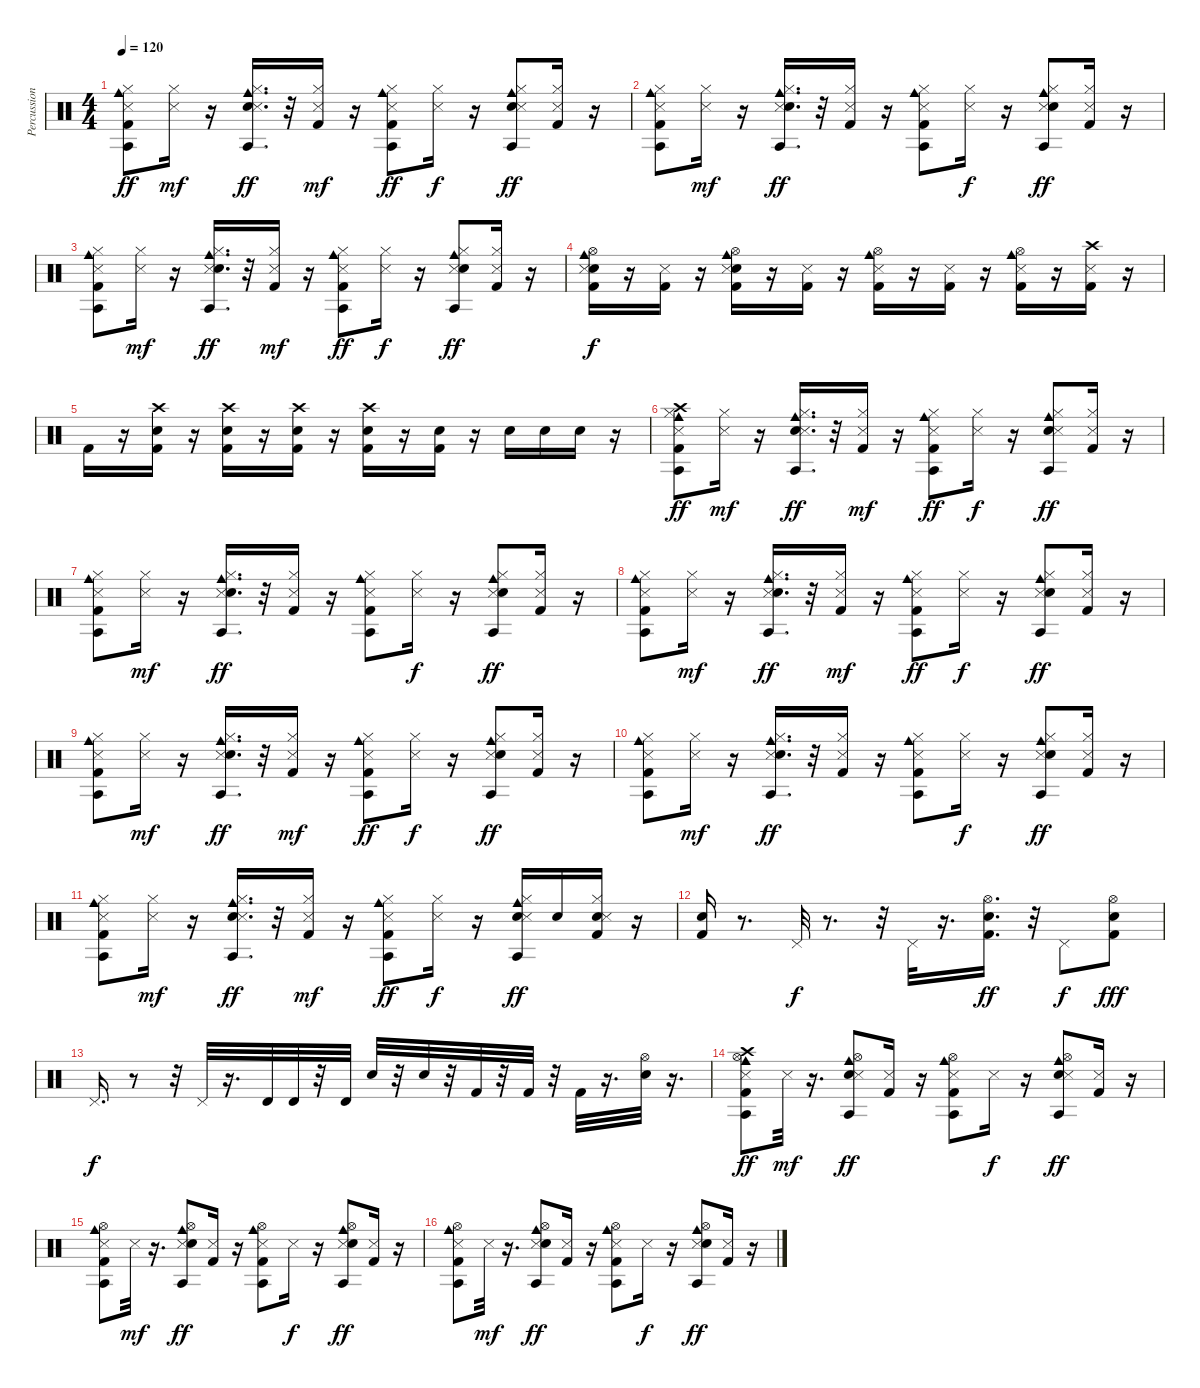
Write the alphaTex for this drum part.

\track ("Percussion" "Percussion") {instrument percussion}
\staff {score}
\articulation defaults
\ts (4 4)
\tempo 120
\clef neutral
\ks c
("Kick (hit) 2" "Agogo tow (hit)" "Cowbell medium (hit)" "Snare (side stick) 3" "Hi-Hat (closed)").8{dy ff} ("Snare (side stick) 3" "Hi-Hat (closed)").16{dy mf} r.16 ("Snare (hit) 2" "Agogo tow (hit)" "Cowbell medium (hit)" "Snare (side stick) 3" "Hi-Hat (closed)").16{d dy ff} r.32 ("Kick (hit) 2" "Snare (side stick) 3" "Hi-Hat (closed)").16{dy mf} r.16 ("Kick (hit) 2" "Agogo tow (hit)" "Cowbell medium (hit)" "Snare (side stick) 3" "Hi-Hat (closed)").8{dy ff} ("Snare (side stick) 3" "Hi-Hat (closed)").16{dy f} r.16 ("Snare (hit) 2" "Agogo tow (hit)" "Cowbell medium (hit)" "Snare (side stick) 3" "Hi-Hat (closed)").8{dy ff} ("Kick (hit) 2" "Snare (side stick) 3" "Hi-Hat (closed)").16 r.16 |
("Agogo tow (hit)" "Snare (side stick) 3" "Cowbell medium (hit)" "Hi-Hat (closed)" "Kick (hit) 2").8 ("Snare (side stick) 3" "Hi-Hat (closed)").16{dy mf} r.16 ("Agogo tow (hit)" "Snare (side stick) 3" "Cowbell medium (hit)" "Hi-Hat (closed)" "Snare (hit) 2").16{d dy ff} r.32 ("Snare (side stick) 3" "Hi-Hat (closed)" "Kick (hit) 2").16 r.16 ("Agogo tow (hit)" "Snare (side stick) 3" "Cowbell medium (hit)" "Hi-Hat (closed)" "Kick (hit) 2").8 ("Snare (side stick) 3" "Hi-Hat (closed)").16{dy f} r.16 ("Agogo tow (hit)" "Snare (side stick) 3" "Cowbell medium (hit)" "Hi-Hat (closed)" "Snare (hit) 2").8{dy ff} ("Snare (side stick) 3" "Hi-Hat (closed)" "Kick (hit) 2").16 r.16 |
("Cowbell medium (hit)" "Snare (side stick) 3" "Agogo tow (hit)" "Kick (hit) 2" "Hi-Hat (closed)").8 ("Snare (side stick) 3" "Hi-Hat (closed)").16{dy mf} r.16 ("Cowbell medium (hit)" "Snare (side stick) 3" "Agogo tow (hit)" "Snare (hit) 2" "Hi-Hat (closed)").16{d dy ff} r.32 ("Snare (side stick) 3" "Kick (hit) 2" "Hi-Hat (closed)").16{dy mf} r.16 ("Cowbell medium (hit)" "Snare (side stick) 3" "Agogo tow (hit)" "Kick (hit) 2" "Hi-Hat (closed)").8{dy ff} ("Snare (side stick) 3" "Hi-Hat (closed)").16{dy f} r.16 ("Cowbell medium (hit)" "Snare (side stick) 3" "Agogo tow (hit)" "Snare (hit) 2" "Hi-Hat (closed)").8{dy ff} ("Snare (side stick) 3" "Kick (hit) 2" "Hi-Hat (closed)").16 r.16 |
("Electric Snare (hit)" "Snare (side stick) 3" "Cowbell medium (hit)" "Hi-Hat (open)" "Kick (hit) 2").16{dy f} r.16 ("Snare (side stick) 3" "Kick (hit) 2").16 r.16 ("Electric Snare (hit)" "Snare (side stick) 3" "Cowbell medium (hit)" "Hi-Hat (open)" "Kick (hit) 2").16 r.16 ("Snare (side stick) 3" "Kick (hit) 2").16 r.16 ("Snare (side stick) 3" "Cowbell medium (hit)" "Hi-Hat (open)" "Kick (hit) 2").16 r.16 ("Snare (side stick) 3" "Kick (hit) 2").16 r.16 ("Snare (side stick) 3" "Cowbell medium (hit)" "Hi-Hat (open)" "Kick (hit) 2").16 r.16 ("Crash high (hit)" "Snare (side stick) 3" "Kick (hit) 2").16 r.16 |
"Kick (hit) 2".16 r.16 ("Crash high (hit)" "Snare (hit) 2" "Kick (hit) 2").16 r.16 ("Snare (hit) 2" "Crash high (hit)" "Kick (hit) 2").16 r.16 ("Snare (hit) 2" "Kick (hit) 2" "Crash high (hit)").16 r.16 ("Snare (hit) 2" "Crash high (hit)" "Kick (hit) 2").16 r.16 ("Snare (hit) 2" "Kick (hit) 2").16 r.16 "Snare (hit) 2".16 "Snare (hit) 2".16 "Snare (hit) 2".16 r.16 |
("Kick (hit) 2" "Hi-Hat (closed)" "Agogo tow (hit)" "Crash high (hit)" "Cowbell medium (hit)" "Snare (side stick) 3").8{dy ff} ("Hi-Hat (closed)" "Snare (side stick) 3").16{dy mf} r.16 ("Snare (hit) 2" "Hi-Hat (closed)" "Agogo tow (hit)" "Cowbell medium (hit)" "Snare (side stick) 3").16{d dy ff} r.32 ("Kick (hit) 2" "Hi-Hat (closed)" "Snare (side stick) 3").16{dy mf} r.16 ("Kick (hit) 2" "Hi-Hat (closed)" "Agogo tow (hit)" "Cowbell medium (hit)" "Snare (side stick) 3").8{dy ff} ("Hi-Hat (closed)" "Snare (side stick) 3").16{dy f} r.16 ("Snare (hit) 2" "Hi-Hat (closed)" "Agogo tow (hit)" "Cowbell medium (hit)" "Snare (side stick) 3").8{dy ff} ("Kick (hit) 2" "Hi-Hat (closed)" "Snare (side stick) 3").16 r.16 |
("Cowbell medium (hit)" "Snare (side stick) 3" "Hi-Hat (closed)" "Agogo tow (hit)" "Kick (hit) 2").8 ("Snare (side stick) 3" "Hi-Hat (closed)").16{dy mf} r.16 ("Cowbell medium (hit)" "Snare (side stick) 3" "Hi-Hat (closed)" "Agogo tow (hit)" "Snare (hit) 2").16{d dy ff} r.32 ("Snare (side stick) 3" "Hi-Hat (closed)" "Kick (hit) 2").16 r.16 ("Cowbell medium (hit)" "Snare (side stick) 3" "Hi-Hat (closed)" "Agogo tow (hit)" "Kick (hit) 2").8 ("Snare (side stick) 3" "Hi-Hat (closed)").16{dy f} r.16 ("Cowbell medium (hit)" "Snare (side stick) 3" "Hi-Hat (closed)" "Agogo tow (hit)" "Snare (hit) 2").8{dy ff} ("Snare (side stick) 3" "Hi-Hat (closed)" "Kick (hit) 2").16 r.16 |
("Snare (side stick) 3" "Agogo tow (hit)" "Kick (hit) 2" "Cowbell medium (hit)" "Hi-Hat (closed)").8 ("Snare (side stick) 3" "Hi-Hat (closed)").16{dy mf} r.16 ("Snare (side stick) 3" "Agogo tow (hit)" "Snare (hit) 2" "Cowbell medium (hit)" "Hi-Hat (closed)").16{d dy ff} r.32 ("Snare (side stick) 3" "Kick (hit) 2" "Hi-Hat (closed)").16{dy mf} r.16 ("Snare (side stick) 3" "Agogo tow (hit)" "Kick (hit) 2" "Cowbell medium (hit)" "Hi-Hat (closed)").8{dy ff} ("Snare (side stick) 3" "Hi-Hat (closed)").16{dy f} r.16 ("Snare (side stick) 3" "Agogo tow (hit)" "Snare (hit) 2" "Cowbell medium (hit)" "Hi-Hat (closed)").8{dy ff} ("Snare (side stick) 3" "Kick (hit) 2" "Hi-Hat (closed)").16 r.16 |
("Cowbell medium (hit)" "Agogo tow (hit)" "Snare (side stick) 3" "Kick (hit) 2" "Hi-Hat (closed)").8 ("Snare (side stick) 3" "Hi-Hat (closed)").16{dy mf} r.16 ("Cowbell medium (hit)" "Agogo tow (hit)" "Snare (side stick) 3" "Snare (hit) 2" "Hi-Hat (closed)").16{d dy ff} r.32 ("Snare (side stick) 3" "Kick (hit) 2" "Hi-Hat (closed)").16{dy mf} r.16 ("Cowbell medium (hit)" "Agogo tow (hit)" "Snare (side stick) 3" "Kick (hit) 2" "Hi-Hat (closed)").8{dy ff} ("Snare (side stick) 3" "Hi-Hat (closed)").16{dy f} r.16 ("Cowbell medium (hit)" "Agogo tow (hit)" "Snare (side stick) 3" "Snare (hit) 2" "Hi-Hat (closed)").8{dy ff} ("Snare (side stick) 3" "Kick (hit) 2" "Hi-Hat (closed)").16 r.16 |
("Hi-Hat (closed)" "Cowbell medium (hit)" "Snare (side stick) 3" "Agogo tow (hit)" "Kick (hit) 2").8 ("Hi-Hat (closed)" "Snare (side stick) 3").16{dy mf} r.16 ("Hi-Hat (closed)" "Cowbell medium (hit)" "Snare (side stick) 3" "Agogo tow (hit)" "Snare (hit) 2").16{d dy ff} r.32 ("Hi-Hat (closed)" "Snare (side stick) 3" "Kick (hit) 2").16 r.16 ("Hi-Hat (closed)" "Cowbell medium (hit)" "Snare (side stick) 3" "Agogo tow (hit)" "Kick (hit) 2").8 ("Hi-Hat (closed)" "Snare (side stick) 3").16{dy f} r.16 ("Hi-Hat (closed)" "Cowbell medium (hit)" "Snare (side stick) 3" "Agogo tow (hit)" "Snare (hit) 2").8{dy ff} ("Hi-Hat (closed)" "Snare (side stick) 3" "Kick (hit) 2").16 r.16 |
("Kick (hit) 2" "Agogo tow (hit)" "Cowbell medium (hit)" "Snare (side stick) 3" "Hi-Hat (closed)").8 ("Snare (side stick) 3" "Hi-Hat (closed)").16{dy mf} r.16 ("Snare (hit) 2" "Agogo tow (hit)" "Cowbell medium (hit)" "Snare (side stick) 3" "Hi-Hat (closed)").16{d dy ff} r.32 ("Kick (hit) 2" "Snare (side stick) 3" "Hi-Hat (closed)").16{dy mf} r.16 ("Kick (hit) 2" "Agogo tow (hit)" "Cowbell medium (hit)" "Snare (side stick) 3" "Hi-Hat (closed)").8{dy ff} ("Snare (side stick) 3" "Hi-Hat (closed)").16{dy f} r.16 ("Snare (hit) 2" "Agogo tow (hit)" "Cowbell medium (hit)" "Snare (side stick) 3" "Hi-Hat (closed)").16{dy ff} "Snare (hit) 2".16 ("Snare (hit) 2" "Kick (hit) 2" "Snare (side stick) 3" "Hi-Hat (closed)").16 r.16 |
("Kick (hit) 2" "Snare (hit) 2").16 r.8{d} "Pedal Hi-Hat (hit)".32{dy f} r.8{d} r.32 "Pedal Hi-Hat (hit)".32 r.16{d} ("Snare (hit) 2" "Kick (hit) 2" "Hi-Hat (open)").16{d dy ff} r.32 "Pedal Hi-Hat (hit)".8{dy f} ("Kick (hit) 2" "Snare (hit) 2" "Hi-Hat (open)").8{dy fff} |
"Pedal Hi-Hat (hit)".16{d dy f} r.8 r.32 "Pedal Hi-Hat (hit)".32 r.16{d} "Timbale high (hit)".32 "Timbale high (hit)".32 r.32 "Timbale high (hit)".32 "Snare (hit) 2".32 r.32 "Electric Snare (hit)".32 r.32 "Kick (hit) 2".32 r.32 "Kick (hit) 2".32 r.32 "Kick (hit) 2".32 r.16{d} ("Hi-Hat (open)" "Snare (hit) 2").32 r.16{d} |
("Hi-Hat (open)" "Kick (hit) 2" "Agogo tow (hit)" "Crash high (hit)" "Cowbell medium (hit)" "Snare (side stick) 3").8{dy ff} "Snare (side stick) 3".32{dy mf} r.16{d} ("Hi-Hat (open)" "Snare (hit) 2" "Agogo tow (hit)" "Cowbell medium (hit)" "Snare (side stick) 3").8{dy ff} ("Kick (hit) 2" "Snare (side stick) 3").16 r.16 ("Hi-Hat (open)" "Kick (hit) 2" "Agogo tow (hit)" "Cowbell medium (hit)" "Snare (side stick) 3").8 "Snare (side stick) 3".16{dy f} r.16 ("Hi-Hat (open)" "Snare (hit) 2" "Agogo tow (hit)" "Cowbell medium (hit)" "Snare (side stick) 3").8{dy ff} ("Kick (hit) 2" "Snare (side stick) 3").16 r.16 |
("Hi-Hat (open)" "Cowbell medium (hit)" "Snare (side stick) 3" "Agogo tow (hit)" "Kick (hit) 2").8 "Snare (side stick) 3".32{dy mf} r.16{d} ("Hi-Hat (open)" "Cowbell medium (hit)" "Snare (side stick) 3" "Agogo tow (hit)" "Snare (hit) 2").8{dy ff} ("Snare (side stick) 3" "Kick (hit) 2").16 r.16 ("Hi-Hat (open)" "Cowbell medium (hit)" "Snare (side stick) 3" "Agogo tow (hit)" "Kick (hit) 2").8 "Snare (side stick) 3".16{dy f} r.16 ("Hi-Hat (open)" "Cowbell medium (hit)" "Snare (side stick) 3" "Agogo tow (hit)" "Snare (hit) 2").8{dy ff} ("Snare (side stick) 3" "Kick (hit) 2").16 r.16 |
("Hi-Hat (open)" "Snare (side stick) 3" "Agogo tow (hit)" "Kick (hit) 2" "Cowbell medium (hit)").8 "Snare (side stick) 3".32{dy mf} r.16{d} ("Hi-Hat (open)" "Snare (side stick) 3" "Agogo tow (hit)" "Snare (hit) 2" "Cowbell medium (hit)").8{dy ff} ("Snare (side stick) 3" "Kick (hit) 2").16 r.16 ("Hi-Hat (open)" "Snare (side stick) 3" "Agogo tow (hit)" "Kick (hit) 2" "Cowbell medium (hit)").8 "Snare (side stick) 3".16{dy f} r.16 ("Hi-Hat (open)" "Snare (side stick) 3" "Agogo tow (hit)" "Snare (hit) 2" "Cowbell medium (hit)").8{dy ff} ("Snare (side stick) 3" "Kick (hit) 2").16 r.16
